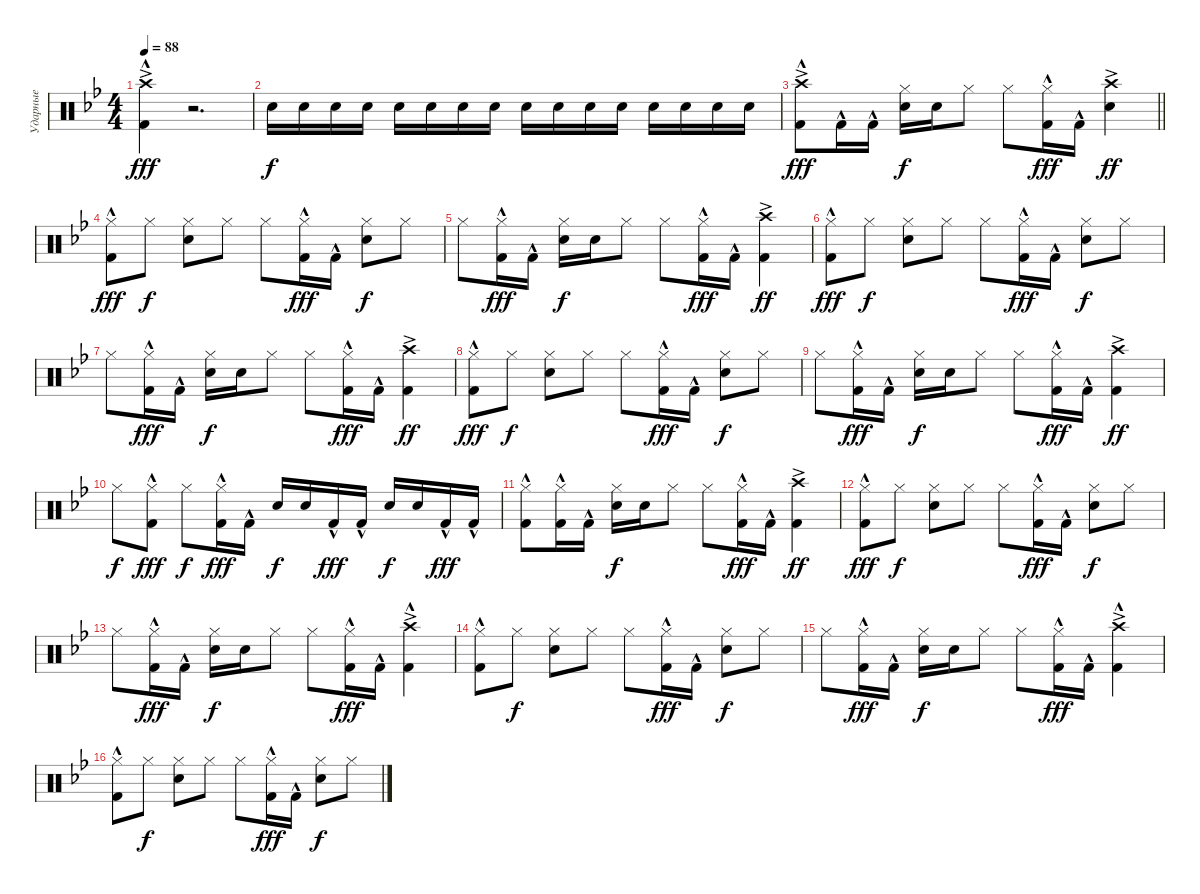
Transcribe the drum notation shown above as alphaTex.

\track ("Ударные" "Ударные") {instrument percussion}
\staff
\articulation defaults
\ts (4 4)
\tempo 88
\clef neutral
\ks bb
("Crash high (hit)"{ac} "Kick (hit) 2"{hac}).4{dy fff} r.2{d} |
"Snare (hit) 2".16{dy f} "Snare (hit) 2".16 "Snare (hit) 2".16 "Snare (hit) 2".16 "Snare (hit) 2".16 "Snare (hit) 2".16 "Snare (hit) 2".16 "Snare (hit) 2".16 "Snare (hit) 2".16 "Snare (hit) 2".16 "Snare (hit) 2".16 "Snare (hit) 2".16 "Snare (hit) 2".16 "Snare (hit) 2".16 "Snare (hit) 2".16 "Snare (hit) 2".16 |
\barLineRight lightlight
("Crash high (hit)"{ac} "Kick (hit) 2"{hac}).8{dy fff} "Kick (hit) 2"{hac}.16 "Kick (hit) 2"{hac}.16 ("Hi-Hat (closed)" "Snare (hit) 2").16{dy f} "Snare (hit) 2".16 "Hi-Hat (closed)".8 "Hi-Hat (closed)".8 ("Hi-Hat (closed)" "Kick (hit) 2"{hac}).16{dy fff} "Kick (hit) 2"{hac}.16 ("Crash high (hit)"{ac} "Snare (hit) 2").4{dy ff} |
("Hi-Hat (closed)" "Kick (hit) 2"{hac}).8{dy fff} "Hi-Hat (closed)".8{dy f} ("Hi-Hat (closed)" "Snare (hit) 2").8 "Hi-Hat (closed)".8 "Hi-Hat (closed)".8 ("Hi-Hat (closed)" "Kick (hit) 2"{hac}).16{dy fff} "Kick (hit) 2"{hac}.16 ("Hi-Hat (closed)" "Snare (hit) 2").8{dy f} "Hi-Hat (closed)".8 |
"Hi-Hat (closed)".8 ("Hi-Hat (closed)" "Kick (hit) 2"{hac}).16{dy fff} "Kick (hit) 2"{hac}.16 ("Hi-Hat (closed)" "Snare (hit) 2").16{dy f} "Snare (hit) 2".16 "Hi-Hat (closed)".8 "Hi-Hat (closed)".8 ("Hi-Hat (closed)" "Kick (hit) 2"{hac}).16{dy fff} "Kick (hit) 2"{hac}.16 ("Crash high (hit)"{ac} "Kick (hit) 2").4{dy ff} |
("Hi-Hat (closed)" "Kick (hit) 2"{hac}).8{dy fff} "Hi-Hat (closed)".8{dy f} ("Hi-Hat (closed)" "Snare (hit) 2").8 "Hi-Hat (closed)".8 "Hi-Hat (closed)".8 ("Hi-Hat (closed)" "Kick (hit) 2"{hac}).16{dy fff} "Kick (hit) 2"{hac}.16 ("Hi-Hat (closed)" "Snare (hit) 2").8{dy f} "Hi-Hat (closed)".8 |
"Hi-Hat (closed)".8 ("Hi-Hat (closed)" "Kick (hit) 2"{hac}).16{dy fff} "Kick (hit) 2"{hac}.16 ("Hi-Hat (closed)" "Snare (hit) 2").16{dy f} "Snare (hit) 2".16 "Hi-Hat (closed)".8 "Hi-Hat (closed)".8 ("Hi-Hat (closed)" "Kick (hit) 2"{hac}).16{dy fff} "Kick (hit) 2"{hac}.16 ("Crash high (hit)"{ac} "Kick (hit) 2").4{dy ff} |
("Hi-Hat (closed)" "Kick (hit) 2"{hac}).8{dy fff} "Hi-Hat (closed)".8{dy f} ("Hi-Hat (closed)" "Snare (hit) 2").8 "Hi-Hat (closed)".8 "Hi-Hat (closed)".8 ("Hi-Hat (closed)" "Kick (hit) 2"{hac}).16{dy fff} "Kick (hit) 2"{hac}.16 ("Hi-Hat (closed)" "Snare (hit) 2").8{dy f} "Hi-Hat (closed)".8 |
"Hi-Hat (closed)".8 ("Hi-Hat (closed)" "Kick (hit) 2"{hac}).16{dy fff} "Kick (hit) 2"{hac}.16 ("Hi-Hat (closed)" "Snare (hit) 2").16{dy f} "Snare (hit) 2".16 "Hi-Hat (closed)".8 "Hi-Hat (closed)".8 ("Hi-Hat (closed)" "Kick (hit) 2"{hac}).16{dy fff} "Kick (hit) 2"{hac}.16 ("Crash high (hit)"{ac} "Kick (hit) 2").4{dy ff} |
"Hi-Hat (closed)".8{dy f} ("Hi-Hat (closed)" "Kick (hit) 2"{hac}).8{dy fff} "Hi-Hat (closed)".8{dy f} ("Hi-Hat (closed)" "Kick (hit) 2"{hac}).16{dy fff} "Kick (hit) 2"{hac}.16 "Snare (hit) 2".16{dy f} "Snare (hit) 2".16 "Kick (hit) 2"{hac}.16{dy fff} "Kick (hit) 2"{hac}.16 "Snare (hit) 2".16{dy f} "Snare (hit) 2".16 "Kick (hit) 2"{hac}.16{dy fff} "Kick (hit) 2"{hac}.16 |
("Hi-Hat (closed)" "Kick (hit) 2"{hac}).8 ("Hi-Hat (closed)" "Kick (hit) 2"{hac}).16 "Kick (hit) 2"{hac}.16 ("Hi-Hat (closed)" "Snare (hit) 2").16{dy f} "Snare (hit) 2".16 "Hi-Hat (closed)".8 "Hi-Hat (closed)".8 ("Hi-Hat (closed)" "Kick (hit) 2"{hac}).16{dy fff} "Kick (hit) 2"{hac}.16 ("Crash high (hit)"{ac} "Kick (hit) 2").4{dy ff} |
("Hi-Hat (closed)" "Kick (hit) 2"{hac}).8{dy fff} "Hi-Hat (closed)".8{dy f} ("Hi-Hat (closed)" "Snare (hit) 2").8 "Hi-Hat (closed)".8 "Hi-Hat (closed)".8 ("Hi-Hat (closed)" "Kick (hit) 2"{hac}).16{dy fff} "Kick (hit) 2"{hac}.16 ("Hi-Hat (closed)" "Snare (hit) 2").8{dy f} "Hi-Hat (closed)".8 |
"Hi-Hat (closed)".8 ("Hi-Hat (closed)" "Kick (hit) 2"{hac}).16{dy fff} "Kick (hit) 2"{hac}.16 ("Hi-Hat (closed)" "Snare (hit) 2").16{dy f} "Snare (hit) 2".16 "Hi-Hat (closed)".8 "Hi-Hat (closed)".8 ("Hi-Hat (closed)" "Kick (hit) 2"{hac}).16{dy fff} "Kick (hit) 2"{hac}.16 ("Crash high (hit)"{ac} "Kick (hit) 2"{hac}).4 |
("Hi-Hat (closed)" "Kick (hit) 2"{hac}).8 "Hi-Hat (closed)".8{dy f} ("Hi-Hat (closed)" "Snare (hit) 2").8 "Hi-Hat (closed)".8 "Hi-Hat (closed)".8 ("Hi-Hat (closed)" "Kick (hit) 2"{hac}).16{dy fff} "Kick (hit) 2"{hac}.16 ("Hi-Hat (closed)" "Snare (hit) 2").8{dy f} "Hi-Hat (closed)".8 |
"Hi-Hat (closed)".8 ("Hi-Hat (closed)" "Kick (hit) 2"{hac}).16{dy fff} "Kick (hit) 2"{hac}.16 ("Hi-Hat (closed)" "Snare (hit) 2").16{dy f} "Snare (hit) 2".16 "Hi-Hat (closed)".8 "Hi-Hat (closed)".8 ("Hi-Hat (closed)" "Kick (hit) 2"{hac}).16{dy fff} "Kick (hit) 2"{hac}.16 ("Crash high (hit)"{ac} "Kick (hit) 2"{hac}).4 |
("Hi-Hat (closed)" "Kick (hit) 2"{hac}).8 "Hi-Hat (closed)".8{dy f} ("Hi-Hat (closed)" "Snare (hit) 2").8 "Hi-Hat (closed)".8 "Hi-Hat (closed)".8 ("Hi-Hat (closed)" "Kick (hit) 2"{hac}).16{dy fff} "Kick (hit) 2"{hac}.16 ("Hi-Hat (closed)" "Snare (hit) 2").8{dy f} "Hi-Hat (closed)".8
